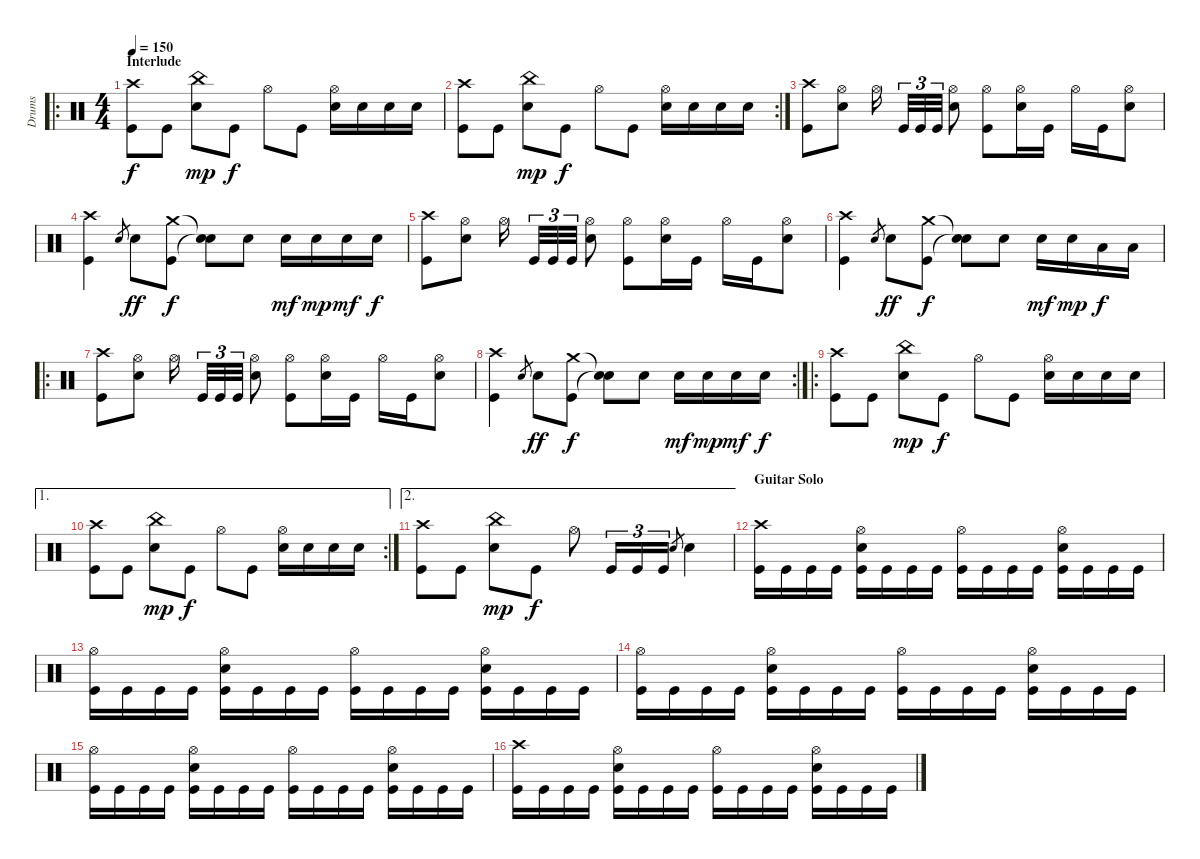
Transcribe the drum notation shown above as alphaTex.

\track ("Drums" "Drums") {instrument percussion}
\staff {score}
\articulation defaults
\ro
\ts (4 4)
\section ("" "Interlude")
\tempo 150
\clef neutral
\ks c
("Crash high (hit)" "Kick (hit)").8{dy f} "Kick (hit)".8 ("China (hit)" "Electric Snare (hit)").8{dy mp} "Kick (hit)".8{dy f} "Hi-Hat (open)".8 "Kick (hit)".8 ("Hi-Hat (open)" "Electric Snare (hit)").16 "Electric Snare (hit)".16 "Electric Snare (hit)".16 "Electric Snare (hit)".16 |
\rc 2
("Crash high (hit)" "Kick (hit)").8 "Kick (hit)".8 ("China (hit)" "Electric Snare (hit)").8{dy mp} "Kick (hit)".8{dy f} "Hi-Hat (open)".8 "Kick (hit)".8 ("Hi-Hat (open)" "Electric Snare (hit)").16 "Electric Snare (hit)".16 "Electric Snare (hit)".16 "Electric Snare (hit)".16 |
("Crash high (hit)" "Kick (hit)").8 ("Hi-Hat (open)" "Electric Snare (hit)").8 "Hi-Hat (open)".16 "Kick (hit)".32{tu (3 2)} "Kick (hit)".32{tu (3 2)} "Kick (hit)".32{tu (3 2)} ("Hi-Hat (open)" "Electric Snare (hit)").8 ("Hi-Hat (open)" "Kick (hit)").8 ("Hi-Hat (open)" "Electric Snare (hit)").16 "Kick (hit)".16 "Hi-Hat (open)".16 "Kick (hit)".16 ("Hi-Hat (open)" "Electric Snare (hit)").8 |
("Crash high (hit)" "Kick (hit)").4 "Electric Snare (hit)".8{gr} "Electric Snare (hit)".8{dy ff} ("Crash medium (hit)" "Kick (hit)").8{dy f} ("Snare (hit)"{t} "Snare (hit)"{t}).8 "Electric Snare (hit)".8 "Electric Snare (hit)".16{dy mf} "Electric Snare (hit)".16{dy mp} "Electric Snare (hit)".16{dy mf} "Electric Snare (hit)".16{dy f} |
("Crash high (hit)" "Kick (hit)").8 ("Hi-Hat (open)" "Electric Snare (hit)").8 "Hi-Hat (open)".16 "Kick (hit)".32{tu (3 2)} "Kick (hit)".32{tu (3 2)} "Kick (hit)".32{tu (3 2)} ("Hi-Hat (open)" "Electric Snare (hit)").8 ("Hi-Hat (open)" "Kick (hit)").8 ("Hi-Hat (open)" "Electric Snare (hit)").16 "Kick (hit)".16 "Hi-Hat (open)".16 "Kick (hit)".16 ("Hi-Hat (open)" "Electric Snare (hit)").8 |
("Crash high (hit)" "Kick (hit)").4 "Electric Snare (hit)".8{gr} "Electric Snare (hit)".8{dy ff} ("Crash medium (hit)" "Kick (hit)").8{dy f} ("Snare (hit)"{t} "Snare (hit)"{t}).8 "Electric Snare (hit)".8 "Electric Snare (hit)".16{dy mf} "Electric Snare (hit)".16{dy mp} "Low Tom (hit)".16{dy f} "Low Tom (hit)".16 |
\ro
("Crash high (hit)" "Kick (hit)").8 ("Hi-Hat (open)" "Electric Snare (hit)").8 "Hi-Hat (open)".16 "Kick (hit)".32{tu (3 2)} "Kick (hit)".32{tu (3 2)} "Kick (hit)".32{tu (3 2)} ("Hi-Hat (open)" "Electric Snare (hit)").8 ("Hi-Hat (open)" "Kick (hit)").8 ("Hi-Hat (open)" "Electric Snare (hit)").16 "Kick (hit)".16 "Hi-Hat (open)".16 "Kick (hit)".16 ("Hi-Hat (open)" "Electric Snare (hit)").8 |
\rc 2
("Crash high (hit)" "Kick (hit)").4 "Electric Snare (hit)".8{gr} "Electric Snare (hit)".8{dy ff} ("Crash medium (hit)" "Kick (hit)").8{dy f} ("Snare (hit)"{t} "Snare (hit)"{t}).8 "Electric Snare (hit)".8 "Electric Snare (hit)".16{dy mf} "Electric Snare (hit)".16{dy mp} "Electric Snare (hit)".16{dy mf} "Electric Snare (hit)".16{dy f} |
\ro
("Crash high (hit)" "Kick (hit)").8 "Kick (hit)".8 ("China (hit)" "Electric Snare (hit)").8{dy mp} "Kick (hit)".8{dy f} "Hi-Hat (open)".8 "Kick (hit)".8 ("Hi-Hat (open)" "Electric Snare (hit)").16 "Electric Snare (hit)".16 "Electric Snare (hit)".16 "Electric Snare (hit)".16 |
\ae 1
\rc 2
("Crash high (hit)" "Kick (hit)").8 "Kick (hit)".8 ("China (hit)" "Electric Snare (hit)").8{dy mp} "Kick (hit)".8{dy f} "Hi-Hat (open)".8 "Kick (hit)".8 ("Hi-Hat (open)" "Electric Snare (hit)").16 "Electric Snare (hit)".16 "Electric Snare (hit)".16 "Electric Snare (hit)".16 |
\ae 2
("Crash high (hit)" "Kick (hit)").8 "Kick (hit)".8 ("China (hit)" "Electric Snare (hit)").8{dy mp} "Kick (hit)".8{dy f} "Hi-Hat (open)".8 "Kick (hit)".16{tu (3 2)} "Kick (hit)".16{tu (3 2)} "Kick (hit)".16{tu (3 2)} "Electric Snare (hit)".8{gr} "Electric Snare (hit)".4 |
\section ("" "Guitar Solo")
("Crash high (hit)" "Kick (hit)").16 "Kick (hit)".16 "Kick (hit)".16 "Kick (hit)".16 ("Hi-Hat (open)" "Electric Snare (hit)" "Kick (hit)").16 "Kick (hit)".16 "Kick (hit)".16 "Kick (hit)".16 ("Hi-Hat (open)" "Kick (hit)").16 "Kick (hit)".16 "Kick (hit)".16 "Kick (hit)".16 ("Hi-Hat (open)" "Electric Snare (hit)" "Kick (hit)").16 "Kick (hit)".16 "Kick (hit)".16 "Kick (hit)".16 |
("Hi-Hat (open)" "Kick (hit)").16 "Kick (hit)".16 "Kick (hit)".16 "Kick (hit)".16 ("Hi-Hat (open)" "Electric Snare (hit)" "Kick (hit)").16 "Kick (hit)".16 "Kick (hit)".16 "Kick (hit)".16 ("Hi-Hat (open)" "Kick (hit)").16 "Kick (hit)".16 "Kick (hit)".16 "Kick (hit)".16 ("Hi-Hat (open)" "Electric Snare (hit)" "Kick (hit)").16 "Kick (hit)".16 "Kick (hit)".16 "Kick (hit)".16 |
("Hi-Hat (open)" "Kick (hit)").16 "Kick (hit)".16 "Kick (hit)".16 "Kick (hit)".16 ("Hi-Hat (open)" "Electric Snare (hit)" "Kick (hit)").16 "Kick (hit)".16 "Kick (hit)".16 "Kick (hit)".16 ("Hi-Hat (open)" "Kick (hit)").16 "Kick (hit)".16 "Kick (hit)".16 "Kick (hit)".16 ("Hi-Hat (open)" "Electric Snare (hit)" "Kick (hit)").16 "Kick (hit)".16 "Kick (hit)".16 "Kick (hit)".16 |
("Hi-Hat (open)" "Kick (hit)").16 "Kick (hit)".16 "Kick (hit)".16 "Kick (hit)".16 ("Hi-Hat (open)" "Electric Snare (hit)" "Kick (hit)").16 "Kick (hit)".16 "Kick (hit)".16 "Kick (hit)".16 ("Hi-Hat (open)" "Kick (hit)").16 "Kick (hit)".16 "Kick (hit)".16 "Kick (hit)".16 ("Hi-Hat (open)" "Electric Snare (hit)" "Kick (hit)").16 "Kick (hit)".16 "Kick (hit)".16 "Kick (hit)".16 |
("Crash high (hit)" "Kick (hit)").16 "Kick (hit)".16 "Kick (hit)".16 "Kick (hit)".16 ("Hi-Hat (open)" "Electric Snare (hit)" "Kick (hit)").16 "Kick (hit)".16 "Kick (hit)".16 "Kick (hit)".16 ("Hi-Hat (open)" "Kick (hit)").16 "Kick (hit)".16 "Kick (hit)".16 "Kick (hit)".16 ("Hi-Hat (open)" "Electric Snare (hit)" "Kick (hit)").16 "Kick (hit)".16 "Kick (hit)".16 "Kick (hit)".16
